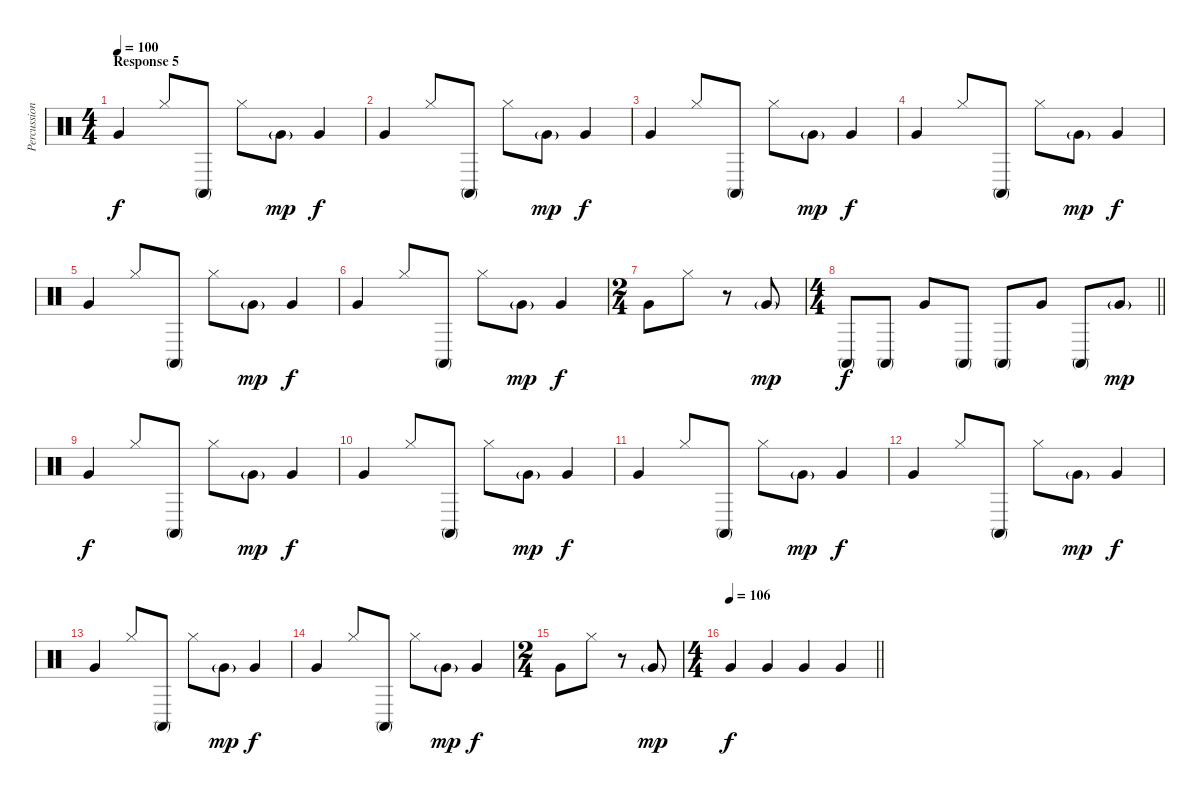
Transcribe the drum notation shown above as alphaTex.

\track ("Percussion" "Percussion") {instrument percussion}
\staff {score}
\articulation defaults
\ts (4 4)
\section ("" "Response 5")
\tempo 100
\clef neutral
\ks c "Very Low Tom (hit)".4{dy f} "Hi-Hat (closed)".8 "Conga high (mute)".8 "Hi-Hat (closed)".8 "Very Low Tom (hit)"{g}.8{dy mp} "Very Low Tom (hit)".4{dy f}
|
"Very Low Tom (hit)".4 "Hi-Hat (closed)".8 "Conga high (mute)".8 "Hi-Hat (closed)".8 "Very Low Tom (hit)"{g}.8{dy mp} "Very Low Tom (hit)".4{dy f} |
"Very Low Tom (hit)".4 "Hi-Hat (closed)".8 "Conga high (mute)".8 "Hi-Hat (closed)".8 "Very Low Tom (hit)"{g}.8{dy mp} "Very Low Tom (hit)".4{dy f} |
"Very Low Tom (hit)".4 "Hi-Hat (closed)".8 "Conga high (mute)".8 "Hi-Hat (closed)".8 "Very Low Tom (hit)"{g}.8{dy mp} "Very Low Tom (hit)".4{dy f} |
"Very Low Tom (hit)".4 "Hi-Hat (closed)".8 "Conga high (mute)".8 "Hi-Hat (closed)".8 "Very Low Tom (hit)"{g}.8{dy mp} "Very Low Tom (hit)".4{dy f} |
"Very Low Tom (hit)".4 "Hi-Hat (closed)".8 "Conga high (mute)".8 "Hi-Hat (closed)".8 "Very Low Tom (hit)"{g}.8{dy mp} "Very Low Tom (hit)".4{dy f} |
\ts (2 4)
"Very Low Tom (hit)".8 "Hi-Hat (closed)".8 r.8 "Very Low Tom (hit)"{g}.8{dy mp} |
\ts (4 4)
\barLineRight lightlight "Conga high (mute)".8{dy f} "Conga high (mute)".8 "Very Low Tom (hit)".8 "Conga high (mute)".8 "Conga high (mute)".8 "Very Low Tom (hit)".8 "Conga high (mute)".8 "Very Low Tom (hit)"{g}.8{dy mp}
|
"Very Low Tom (hit)".4{dy f} "Hi-Hat (closed)".8 "Conga high (mute)".8 "Hi-Hat (closed)".8 "Very Low Tom (hit)"{g}.8{dy mp} "Very Low Tom (hit)".4{dy f} |
"Very Low Tom (hit)".4 "Hi-Hat (closed)".8 "Conga high (mute)".8 "Hi-Hat (closed)".8 "Very Low Tom (hit)"{g}.8{dy mp} "Very Low Tom (hit)".4{dy f} |
"Very Low Tom (hit)".4 "Hi-Hat (closed)".8 "Conga high (mute)".8 "Hi-Hat (closed)".8 "Very Low Tom (hit)"{g}.8{dy mp} "Very Low Tom (hit)".4{dy f} |
"Very Low Tom (hit)".4 "Hi-Hat (closed)".8 "Conga high (mute)".8 "Hi-Hat (closed)".8 "Very Low Tom (hit)"{g}.8{dy mp} "Very Low Tom (hit)".4{dy f} |
"Very Low Tom (hit)".4 "Hi-Hat (closed)".8 "Conga high (mute)".8 "Hi-Hat (closed)".8 "Very Low Tom (hit)"{g}.8{dy mp} "Very Low Tom (hit)".4{dy f} |
"Very Low Tom (hit)".4 "Hi-Hat (closed)".8 "Conga high (mute)".8 "Hi-Hat (closed)".8 "Very Low Tom (hit)"{g}.8{dy mp} "Very Low Tom (hit)".4{dy f} |
\ts (2 4)
"Very Low Tom (hit)".8 "Hi-Hat (closed)".8 r.8 "Very Low Tom (hit)"{g}.8{dy mp} |
\ts (4 4)
\tempo 106
\barLineRight lightlight "Very Low Tom (hit)".4{dy f} "Very Low Tom (hit)".4 "Very Low Tom (hit)".4 "Very Low Tom (hit)".4
